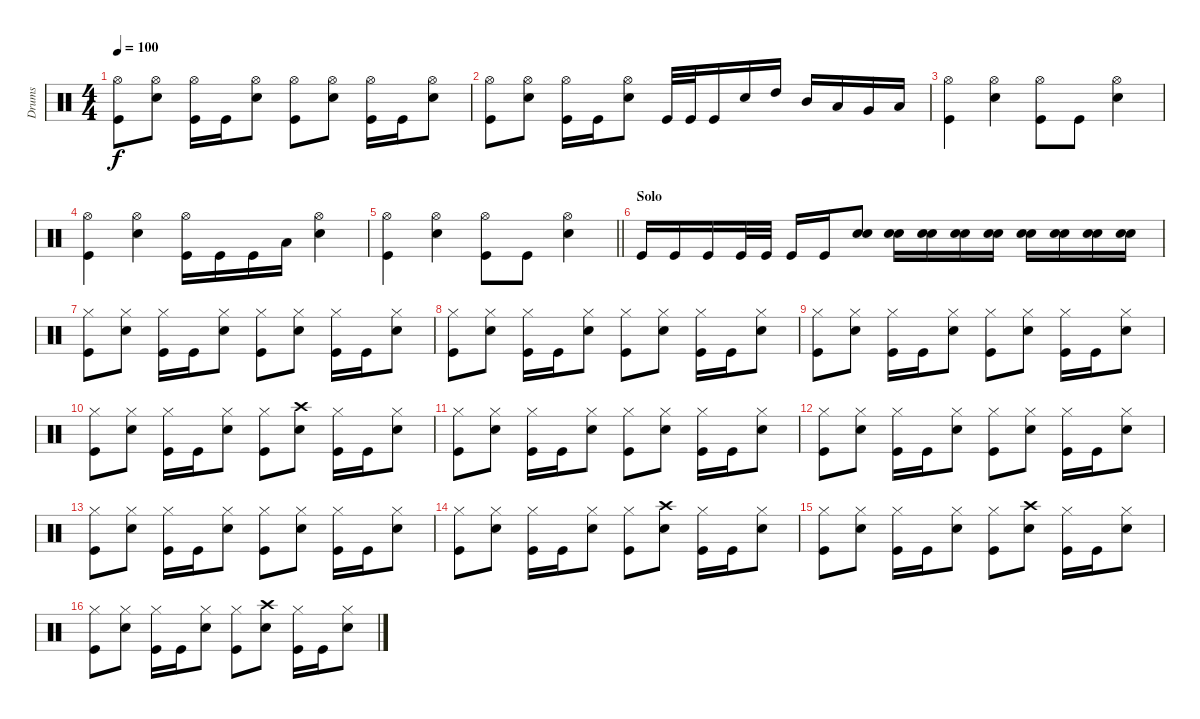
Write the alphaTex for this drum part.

\track ("Drums" "Drums") {instrument percussion}
\staff {score}
\articulation defaults
\ts (4 4)
\tempo 100
\clef neutral
\ks c
("Hi-Hat (open)" "Kick (hit)").8{dy f} ("Hi-Hat (open)" "Snare (hit) 2").8 ("Hi-Hat (open)" "Kick (hit)").16 "Kick (hit)".16 ("Hi-Hat (open)" "Snare (hit) 2").8 ("Hi-Hat (open)" "Kick (hit)").8 ("Hi-Hat (open)" "Snare (hit) 2").8 ("Hi-Hat (open)" "Kick (hit)").16 "Kick (hit)".16 ("Hi-Hat (open)" "Snare (hit) 2").8 |
("Hi-Hat (open)" "Kick (hit)").8 ("Hi-Hat (open)" "Snare (hit) 2").8 ("Hi-Hat (open)" "Kick (hit)").16 "Kick (hit)".16 ("Hi-Hat (open)" "Snare (hit) 2").8 "Kick (hit)".32 "Kick (hit)".32 "Kick (hit)".16 "Snare (hit) 2".16 "High Tom (hit)".16 "Mid Tom (hit)".16 "Low Tom (hit)".16 "Very Low Tom (hit)".16 "Low Floor Tom (hit)".16 |
("Hi-Hat (open)" "Kick (hit)").4 ("Hi-Hat (open)" "Snare (hit) 2").4 ("Hi-Hat (open)" "Kick (hit)").8 "Kick (hit)".8 ("Hi-Hat (open)" "Snare (hit) 2").4 |
("Hi-Hat (open)" "Kick (hit)").4 ("Hi-Hat (open)" "Snare (hit) 2").4 ("Hi-Hat (open)" "Kick (hit)").16 "Kick (hit)".16 "Kick (hit)".16 "Low Tom (hit)".16 ("Hi-Hat (open)" "Snare (hit) 2").4 |
\barLineRight lightlight
("Hi-Hat (open)" "Kick (hit)").4 ("Hi-Hat (open)" "Snare (hit) 2").4 ("Hi-Hat (open)" "Kick (hit)").8 "Kick (hit)".8 ("Hi-Hat (open)" "Snare (hit) 2").4 |
\section ("" "Solo")
"Kick (hit)".16 "Kick (hit)".16 "Kick (hit)".16 "Kick (hit)".32 "Kick (hit)".32 "Kick (hit)".16 "Kick (hit)".16 ("Snare (hit) 2" "Snare (hit) 2").8 ("Snare (hit) 2" "Snare (hit) 2").16 ("Snare (hit) 2" "Snare (hit) 2").16 ("Snare (hit) 2" "Snare (hit) 2").16 ("Snare (hit) 2" "Snare (hit) 2").16 ("Snare (hit) 2" "Snare (hit) 2").16 ("Snare (hit) 2" "Snare (hit) 2").16 ("Snare (hit) 2" "Snare (hit) 2").16 ("Snare (hit) 2" "Snare (hit) 2").16 |
("Hi-Hat (closed)" "Kick (hit)").8 ("Hi-Hat (closed)" "Snare (hit) 2").8 ("Hi-Hat (closed)" "Kick (hit)").16 "Kick (hit)".16 ("Hi-Hat (closed)" "Snare (hit) 2").8 ("Hi-Hat (closed)" "Kick (hit)").8 ("Hi-Hat (closed)" "Snare (hit) 2").8 ("Hi-Hat (closed)" "Kick (hit)").16 "Kick (hit)".16 ("Hi-Hat (closed)" "Snare (hit) 2").8 |
("Hi-Hat (closed)" "Kick (hit)").8 ("Hi-Hat (closed)" "Snare (hit) 2").8 ("Hi-Hat (closed)" "Kick (hit)").16 "Kick (hit)".16 ("Hi-Hat (closed)" "Snare (hit) 2").8 ("Hi-Hat (closed)" "Kick (hit)").8 ("Hi-Hat (closed)" "Snare (hit) 2").8 ("Hi-Hat (closed)" "Kick (hit)").16 "Kick (hit)".16 ("Hi-Hat (closed)" "Snare (hit) 2").8 |
("Hi-Hat (closed)" "Kick (hit)").8 ("Hi-Hat (closed)" "Snare (hit) 2").8 ("Hi-Hat (closed)" "Kick (hit)").16 "Kick (hit)".16 ("Hi-Hat (closed)" "Snare (hit) 2").8 ("Hi-Hat (closed)" "Kick (hit)").8 ("Hi-Hat (closed)" "Snare (hit) 2").8 ("Hi-Hat (closed)" "Kick (hit)").16 "Kick (hit)".16 ("Hi-Hat (closed)" "Snare (hit) 2").8 |
("Hi-Hat (closed)" "Kick (hit)").8 ("Hi-Hat (closed)" "Snare (hit) 2").8 ("Hi-Hat (closed)" "Kick (hit)").16 "Kick (hit)".16 ("Hi-Hat (closed)" "Snare (hit) 2").8 ("Hi-Hat (closed)" "Kick (hit)").8 ("Crash high (hit)" "Snare (hit) 2").8 ("Hi-Hat (closed)" "Kick (hit)").16 "Kick (hit)".16 ("Hi-Hat (closed)" "Snare (hit) 2").8 |
("Hi-Hat (closed)" "Kick (hit)").8 ("Hi-Hat (closed)" "Snare (hit) 2").8 ("Hi-Hat (closed)" "Kick (hit)").16 "Kick (hit)".16 ("Hi-Hat (closed)" "Snare (hit) 2").8 ("Hi-Hat (closed)" "Kick (hit)").8 ("Hi-Hat (closed)" "Snare (hit) 2").8 ("Hi-Hat (closed)" "Kick (hit)").16 "Kick (hit)".16 ("Hi-Hat (closed)" "Snare (hit) 2").8 |
("Hi-Hat (closed)" "Kick (hit)").8 ("Hi-Hat (closed)" "Snare (hit) 2").8 ("Hi-Hat (closed)" "Kick (hit)").16 "Kick (hit)".16 ("Hi-Hat (closed)" "Snare (hit) 2").8 ("Hi-Hat (closed)" "Kick (hit)").8 ("Hi-Hat (closed)" "Snare (hit) 2").8 ("Hi-Hat (closed)" "Kick (hit)").16 "Kick (hit)".16 ("Hi-Hat (closed)" "Snare (hit) 2").8 |
("Hi-Hat (closed)" "Kick (hit)").8 ("Hi-Hat (closed)" "Snare (hit) 2").8 ("Hi-Hat (closed)" "Kick (hit)").16 "Kick (hit)".16 ("Hi-Hat (closed)" "Snare (hit) 2").8 ("Hi-Hat (closed)" "Kick (hit)").8 ("Hi-Hat (closed)" "Snare (hit) 2").8 ("Hi-Hat (closed)" "Kick (hit)").16 "Kick (hit)".16 ("Hi-Hat (closed)" "Snare (hit) 2").8 |
("Hi-Hat (closed)" "Kick (hit)").8 ("Hi-Hat (closed)" "Snare (hit) 2").8 ("Hi-Hat (closed)" "Kick (hit)").16 "Kick (hit)".16 ("Hi-Hat (closed)" "Snare (hit) 2").8 ("Hi-Hat (closed)" "Kick (hit)").8 ("Crash high (hit)" "Snare (hit) 2").8 ("Hi-Hat (closed)" "Kick (hit)").16 "Kick (hit)".16 ("Hi-Hat (closed)" "Snare (hit) 2").8 |
("Hi-Hat (closed)" "Kick (hit)").8 ("Hi-Hat (closed)" "Snare (hit) 2").8 ("Hi-Hat (closed)" "Kick (hit)").16 "Kick (hit)".16 ("Hi-Hat (closed)" "Snare (hit) 2").8 ("Hi-Hat (closed)" "Kick (hit)").8 ("Crash high (hit)" "Snare (hit) 2").8 ("Hi-Hat (closed)" "Kick (hit)").16 "Kick (hit)".16 ("Hi-Hat (closed)" "Snare (hit) 2").8 |
("Hi-Hat (closed)" "Kick (hit)").8 ("Hi-Hat (closed)" "Snare (hit) 2").8 ("Hi-Hat (closed)" "Kick (hit)").16 "Kick (hit)".16 ("Hi-Hat (closed)" "Snare (hit) 2").8 ("Hi-Hat (closed)" "Kick (hit)").8 ("Crash high (hit)" "Snare (hit) 2").8 ("Hi-Hat (closed)" "Kick (hit)").16 "Kick (hit)".16 ("Hi-Hat (closed)" "Snare (hit) 2").8
